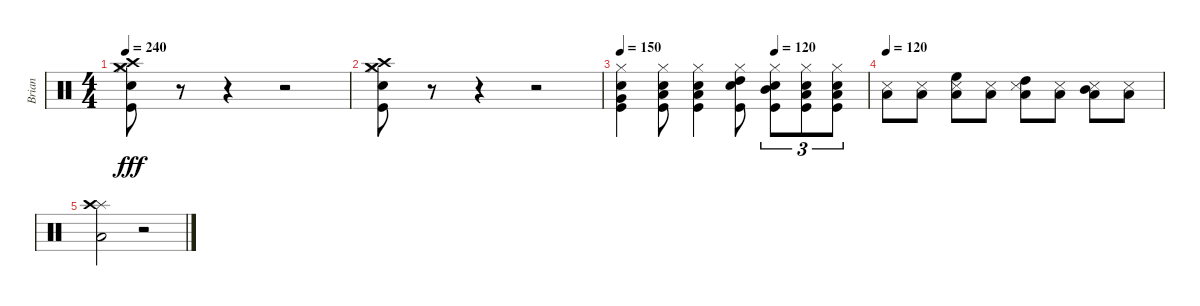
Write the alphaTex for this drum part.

\track ("Brian" "Brian") {instrument percussion}
\staff {score}
\articulation defaults
\ts (4 4)
\tempo 240
\clef neutral
\ks c
("Crash high (hit)" "Crash medium (hit)" "Hi-Hat (closed)" "Electric Snare (hit)" "Kick (hit)").8{dy fff} r.8 r.4 r.2 |
("Crash high (hit)" "Crash medium (hit)" "Hi-Hat (closed)" "Electric Snare (hit)" "Kick (hit)").8 r.8 r.4 r.2 |
\tempo 150
\tempo (120 0.625)
("Very Low Tom (hit)" "Hi-Hat (closed)" "Snare (hit) 2" "Kick (hit)").4{volume 10} ("Low Floor Tom (hit)" "Hi-Hat (closed)" "Snare (hit) 2" "Kick (hit)").8 ("Low Floor Tom (hit)" "Hi-Hat (closed)" "Snare (hit) 2" "Kick (hit)").4 ("High Tom (hit)" "Hi-Hat (closed)" "Snare (hit) 2" "Kick (hit)").8{volume 13} ("Mid Tom (hit)" "Hi-Hat (closed)" "Snare (hit) 2" "Kick (hit)").8{tu (3 2)} ("Low Tom (hit)" "Hi-Hat (closed)" "Snare (hit) 2" "Kick (hit)").8{tu (3 2)} ("Low Tom (hit)" "Hi-Hat (closed)" "Snare (hit) 2" "Kick (hit)").8{tu (3 2)} |
\tempo 120
("Low Tom (hit)" "Snare (side stick) 3").8 ("Low Tom (hit)" "Snare (side stick) 3").8 ("High Floor Tom (hit)" "Low Tom (hit)" "Snare (side stick) 3").8 ("Low Tom (hit)" "Snare (side stick) 3").8 ("High Tom (hit)" "Low Tom (hit)" "Snare (side stick) 3").8 ("Low Tom (hit)" "Snare (side stick) 3").8 ("Mid Tom (hit)" "Low Tom (hit)" "Snare (side stick) 3").8 ("Low Tom (hit)" "Snare (side stick) 3").8 |
("Splash (hit)" "Crash high (hit)" "Low Tom (hit)").2{volume 14} r.2
